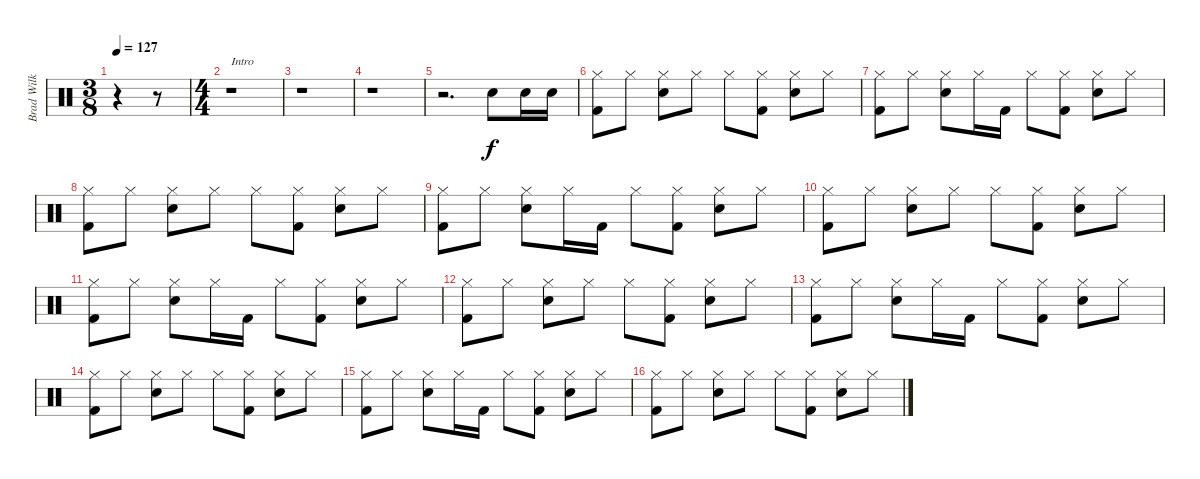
\track ("Brad Wilk" "Brad Wilk") {instrument percussion}
\staff {score}
\articulation defaults
\ts (3 8)
\tempo 127
\clef neutral
\ks c
r.4{dy f} r.8 |
\ts (4 4)
r.1{txt "Intro"} |
r.1 |
r.1 |
r.2{d} "Electric Snare (hit)".8 "Electric Snare (hit)".16 "Electric Snare (hit)".16 |
("Hi-Hat (closed)" "Kick (hit) 2").8 "Hi-Hat (closed)".8 ("Electric Snare (hit)" "Hi-Hat (closed)").8 "Hi-Hat (closed)".8 "Hi-Hat (closed)".8 ("Hi-Hat (closed)" "Kick (hit) 2").8 ("Electric Snare (hit)" "Hi-Hat (closed)").8 "Hi-Hat (closed)".8 |
("Hi-Hat (closed)" "Kick (hit) 2").8 "Hi-Hat (closed)".8 ("Electric Snare (hit)" "Hi-Hat (closed)").8 "Hi-Hat (closed)".16 "Kick (hit) 2".16 "Hi-Hat (closed)".8 ("Hi-Hat (closed)" "Kick (hit) 2").8 ("Electric Snare (hit)" "Hi-Hat (closed)").8 "Hi-Hat (closed)".8 |
("Hi-Hat (closed)" "Kick (hit) 2").8 "Hi-Hat (closed)".8 ("Electric Snare (hit)" "Hi-Hat (closed)").8 "Hi-Hat (closed)".8 "Hi-Hat (closed)".8 ("Hi-Hat (closed)" "Kick (hit) 2").8 ("Electric Snare (hit)" "Hi-Hat (closed)").8 "Hi-Hat (closed)".8 |
("Hi-Hat (closed)" "Kick (hit) 2").8 "Hi-Hat (closed)".8 ("Electric Snare (hit)" "Hi-Hat (closed)").8 "Hi-Hat (closed)".16 "Kick (hit) 2".16 "Hi-Hat (closed)".8 ("Hi-Hat (closed)" "Kick (hit) 2").8 ("Electric Snare (hit)" "Hi-Hat (closed)").8 "Hi-Hat (closed)".8 |
("Hi-Hat (closed)" "Kick (hit) 2").8 "Hi-Hat (closed)".8 ("Electric Snare (hit)" "Hi-Hat (closed)").8 "Hi-Hat (closed)".8 "Hi-Hat (closed)".8 ("Hi-Hat (closed)" "Kick (hit) 2").8 ("Electric Snare (hit)" "Hi-Hat (closed)").8 "Hi-Hat (closed)".8 |
("Hi-Hat (closed)" "Kick (hit) 2").8 "Hi-Hat (closed)".8 ("Electric Snare (hit)" "Hi-Hat (closed)").8 "Hi-Hat (closed)".16 "Kick (hit) 2".16 "Hi-Hat (closed)".8 ("Hi-Hat (closed)" "Kick (hit) 2").8 ("Electric Snare (hit)" "Hi-Hat (closed)").8 "Hi-Hat (closed)".8 |
("Hi-Hat (closed)" "Kick (hit) 2").8 "Hi-Hat (closed)".8 ("Electric Snare (hit)" "Hi-Hat (closed)").8 "Hi-Hat (closed)".8 "Hi-Hat (closed)".8 ("Hi-Hat (closed)" "Kick (hit) 2").8 ("Electric Snare (hit)" "Hi-Hat (closed)").8 "Hi-Hat (closed)".8 |
("Hi-Hat (closed)" "Kick (hit) 2").8 "Hi-Hat (closed)".8 ("Electric Snare (hit)" "Hi-Hat (closed)").8 "Hi-Hat (closed)".16 "Kick (hit) 2".16 "Hi-Hat (closed)".8 ("Hi-Hat (closed)" "Kick (hit) 2").8 ("Electric Snare (hit)" "Hi-Hat (closed)").8 "Hi-Hat (closed)".8 |
("Hi-Hat (closed)" "Kick (hit) 2").8 "Hi-Hat (closed)".8 ("Electric Snare (hit)" "Hi-Hat (closed)").8 "Hi-Hat (closed)".8 "Hi-Hat (closed)".8 ("Hi-Hat (closed)" "Kick (hit) 2").8 ("Electric Snare (hit)" "Hi-Hat (closed)").8 "Hi-Hat (closed)".8 |
("Hi-Hat (closed)" "Kick (hit) 2").8 "Hi-Hat (closed)".8 ("Electric Snare (hit)" "Hi-Hat (closed)").8 "Hi-Hat (closed)".16 "Kick (hit) 2".16 "Hi-Hat (closed)".8 ("Hi-Hat (closed)" "Kick (hit) 2").8 ("Electric Snare (hit)" "Hi-Hat (closed)").8 "Hi-Hat (closed)".8 |
("Hi-Hat (closed)" "Kick (hit) 2").8 "Hi-Hat (closed)".8 ("Electric Snare (hit)" "Hi-Hat (closed)").8 "Hi-Hat (closed)".8 "Hi-Hat (closed)".8 ("Hi-Hat (closed)" "Kick (hit) 2").8 ("Electric Snare (hit)" "Hi-Hat (closed)").8 "Hi-Hat (closed)".8
